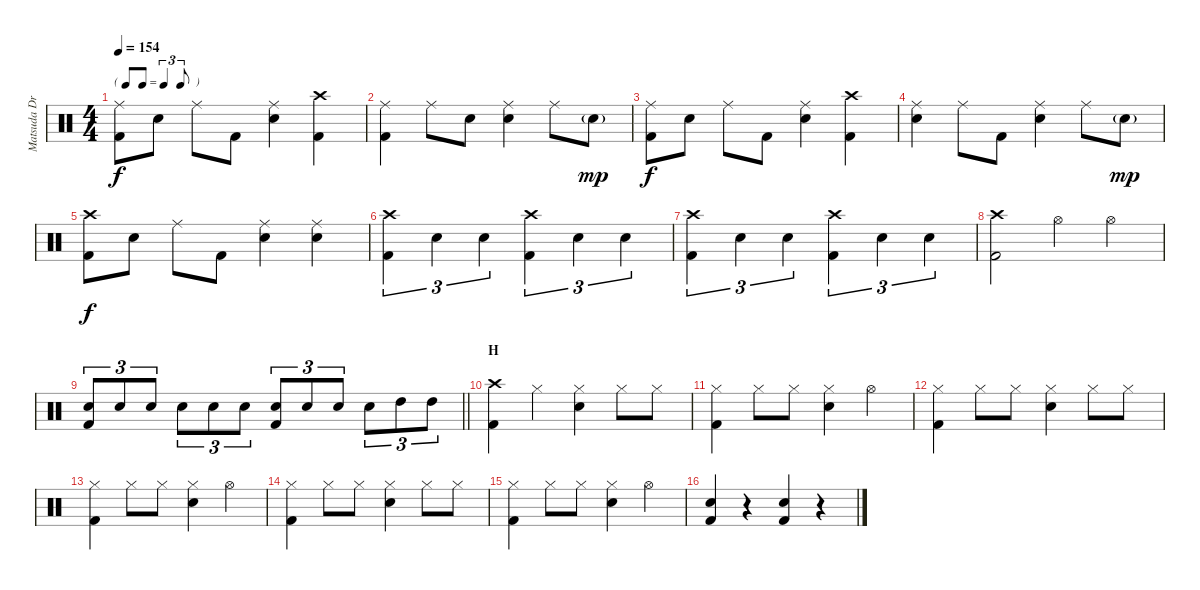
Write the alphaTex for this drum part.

\track ("Matsuda Drums" "Matsuda Dr") {instrument percussion}
\staff {score}
\articulation defaults
\ts (4 4)
\tf triplet8th
\tempo 154
\clef neutral
\ks c
("Ride (middle)" "Kick (hit) 2").8{dy f} "Snare (hit) 2".8 "Ride (middle)".8 "Kick (hit) 2".8 ("Ride (middle)" "Snare (hit) 2").4 ("Crash high (hit)" "Kick (hit) 2").4 |
("Ride (middle)" "Kick (hit) 2").4 "Ride (middle)".8 "Snare (hit) 2".8 ("Ride (middle)" "Snare (hit) 2").4 "Ride (middle)".8 "Snare (hit) 2"{g}.8{dy mp} |
("Ride (middle)" "Kick (hit) 2").8{dy f} "Snare (hit) 2".8 "Ride (middle)".8 "Kick (hit) 2".8 ("Ride (middle)" "Snare (hit) 2").4 ("Crash high (hit)" "Kick (hit) 2").4 |
("Ride (middle)" "Snare (hit) 2").4 "Ride (middle)".8 "Kick (hit) 2".8 ("Ride (middle)" "Snare (hit) 2").4 "Ride (middle)".8 "Snare (hit) 2"{g}.8{dy mp} |
("Crash high (hit)" "Kick (hit) 2").8{dy f} "Snare (hit) 2".8 "Ride (middle)".8 "Kick (hit) 2".8 ("Ride (middle)" "Snare (hit) 2").4 ("Ride (middle)" "Snare (hit) 2").4 |
("Crash high (hit)" "Kick (hit) 2").4{tu (3 2)} "Snare (hit) 2".4{tu (3 2)} "Snare (hit) 2".4{tu (3 2)} ("Crash high (hit)" "Kick (hit) 2").4{tu (3 2)} "Snare (hit) 2".4{tu (3 2)} "Snare (hit) 2".4{tu (3 2)} |
("Crash high (hit)" "Kick (hit) 2").4{tu (3 2)} "Snare (hit) 2".4{tu (3 2)} "Snare (hit) 2".4{tu (3 2)} ("Crash high (hit)" "Kick (hit) 2").4{tu (3 2)} "Snare (hit) 2".4{tu (3 2)} "Snare (hit) 2".4{tu (3 2)} |
("Crash high (hit)" "Kick (hit) 2").2 "Hi-Hat (open)".4 "Hi-Hat (open)".4 |
\barLineRight lightlight
("Snare (hit) 2" "Kick (hit) 2").8{tu (3 2)} "Snare (hit) 2".8{tu (3 2)} "Snare (hit) 2".8{tu (3 2)} "Snare (hit) 2".8{tu (3 2)} "Snare (hit) 2".8{tu (3 2)} "Snare (hit) 2".8{tu (3 2)} ("Snare (hit) 2" "Kick (hit) 2").8{tu (3 2)} "Snare (hit) 2".8{tu (3 2)} "Snare (hit) 2".8{tu (3 2)} "Snare (hit) 2".8{tu (3 2)} "High Tom (hit)".8{tu (3 2)} "High Tom (hit)".8{tu (3 2)} |
\section ("" "H")
("Crash high (hit)" "Kick (hit) 2").4 "Hi-Hat (closed)".4 ("Hi-Hat (closed)" "Snare (hit) 2").4 "Hi-Hat (closed)".8 "Hi-Hat (closed)".8 |
("Hi-Hat (closed)" "Kick (hit) 2").4 "Hi-Hat (closed)".8 "Hi-Hat (closed)".8 ("Hi-Hat (closed)" "Snare (hit) 2").4 "Hi-Hat (open)".4 |
("Hi-Hat (closed)" "Kick (hit) 2").4 "Hi-Hat (closed)".8 "Hi-Hat (closed)".8 ("Hi-Hat (closed)" "Snare (hit) 2").4 "Hi-Hat (closed)".8 "Hi-Hat (closed)".8 |
("Hi-Hat (closed)" "Kick (hit) 2").4 "Hi-Hat (closed)".8 "Hi-Hat (closed)".8 ("Hi-Hat (closed)" "Snare (hit) 2").4 "Hi-Hat (open)".4 |
("Hi-Hat (closed)" "Kick (hit) 2").4 "Hi-Hat (closed)".8 "Hi-Hat (closed)".8 ("Hi-Hat (closed)" "Snare (hit) 2").4 "Hi-Hat (closed)".8 "Hi-Hat (closed)".8 |
("Hi-Hat (closed)" "Kick (hit) 2").4 "Hi-Hat (closed)".8 "Hi-Hat (closed)".8 ("Hi-Hat (closed)" "Snare (hit) 2").4 "Hi-Hat (open)".4 |
("Snare (hit) 2" "Kick (hit) 2").4 r.4 ("Snare (hit) 2" "Kick (hit) 2").4 r.4
